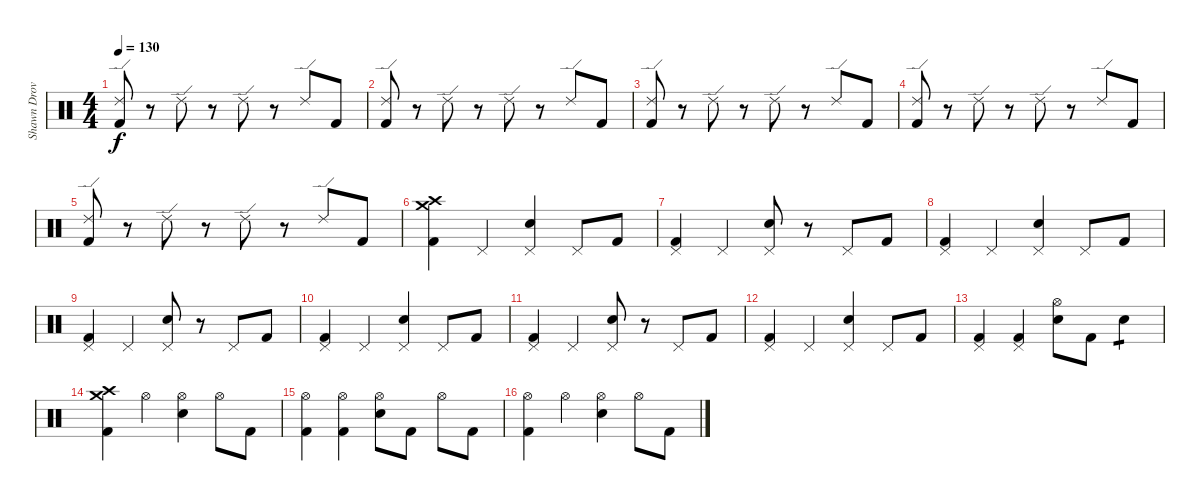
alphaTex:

\track ("Shawn Drover" "Shawn Drov") {instrument percussion}
\staff {score}
\articulation defaults
\ts (4 4)
\tempo 130
\clef neutral
\ks c
("Ride (edge) 2" "Kick (hit) 2").8{dy f} r.8 "Ride (edge) 2".8 r.8 "Ride (edge) 2".8 r.8 "Ride (edge) 2".8 "Kick (hit) 2".8 |
("Ride (edge) 2" "Kick (hit) 2").8 r.8 "Ride (edge) 2".8 r.8 "Ride (edge) 2".8 r.8 "Ride (edge) 2".8 "Kick (hit) 2".8 |
("Ride (edge) 2" "Kick (hit) 2").8 r.8 "Ride (edge) 2".8 r.8 "Ride (edge) 2".8 r.8 "Ride (edge) 2".8 "Kick (hit) 2".8 |
("Ride (edge) 2" "Kick (hit) 2").8 r.8 "Ride (edge) 2".8 r.8 "Ride (edge) 2".8 r.8 "Ride (edge) 2".8 "Kick (hit) 2".8 |
("Ride (edge) 2" "Kick (hit) 2").8 r.8 "Ride (edge) 2".8 r.8 "Ride (edge) 2".8 r.8 "Ride (edge) 2".8 "Kick (hit) 2".8 |
("Crash high (hit)" "Crash medium (hit)" "Kick (hit) 2").4 "Pedal Hi-Hat (hit)".4 ("Pedal Hi-Hat (hit)" "Snare (hit) 2").4 "Pedal Hi-Hat (hit)".8 "Kick (hit) 2".8 |
("Pedal Hi-Hat (hit)" "Kick (hit) 2").4 "Pedal Hi-Hat (hit)".4 ("Pedal Hi-Hat (hit)" "Snare (hit) 2").8 r.8 "Pedal Hi-Hat (hit)".8 "Kick (hit) 2".8 |
("Pedal Hi-Hat (hit)" "Kick (hit) 2").4 "Pedal Hi-Hat (hit)".4 ("Pedal Hi-Hat (hit)" "Snare (hit) 2").4 "Pedal Hi-Hat (hit)".8 "Kick (hit) 2".8 |
("Pedal Hi-Hat (hit)" "Kick (hit) 2").4 "Pedal Hi-Hat (hit)".4 ("Pedal Hi-Hat (hit)" "Snare (hit) 2").8 r.8 "Pedal Hi-Hat (hit)".8 "Kick (hit) 2".8 |
("Pedal Hi-Hat (hit)" "Kick (hit) 2").4 "Pedal Hi-Hat (hit)".4 ("Pedal Hi-Hat (hit)" "Snare (hit) 2").4 "Pedal Hi-Hat (hit)".8 "Kick (hit) 2".8 |
("Pedal Hi-Hat (hit)" "Kick (hit) 2").4 "Pedal Hi-Hat (hit)".4 ("Pedal Hi-Hat (hit)" "Snare (hit) 2").8 r.8 "Pedal Hi-Hat (hit)".8 "Kick (hit) 2".8 |
("Pedal Hi-Hat (hit)" "Kick (hit) 2").4 "Pedal Hi-Hat (hit)".4 ("Pedal Hi-Hat (hit)" "Snare (hit) 2").4 "Pedal Hi-Hat (hit)".8 "Kick (hit) 2".8 |
("Pedal Hi-Hat (hit)" "Kick (hit) 2").4 ("Pedal Hi-Hat (hit)" "Kick (hit) 2").4 ("Hi-Hat (open)" "Snare (hit) 2").8 "Kick (hit) 2".8 "Snare (hit) 2".4{tp 1} |
("Crash high (hit)" "Crash medium (hit)" "Kick (hit) 2").4 "Hi-Hat (open)".4 ("Hi-Hat (open)" "Snare (hit) 2").4 "Hi-Hat (open)".8 "Kick (hit) 2".8 |
("Hi-Hat (open)" "Kick (hit) 2").4 ("Hi-Hat (open)" "Kick (hit) 2").4 ("Hi-Hat (open)" "Snare (hit) 2").8 "Kick (hit) 2".8 "Hi-Hat (open)".8 "Kick (hit) 2".8 |
("Hi-Hat (open)" "Kick (hit) 2").4 "Hi-Hat (open)".4 ("Hi-Hat (open)" "Snare (hit) 2").4 "Hi-Hat (open)".8 "Kick (hit) 2".8
